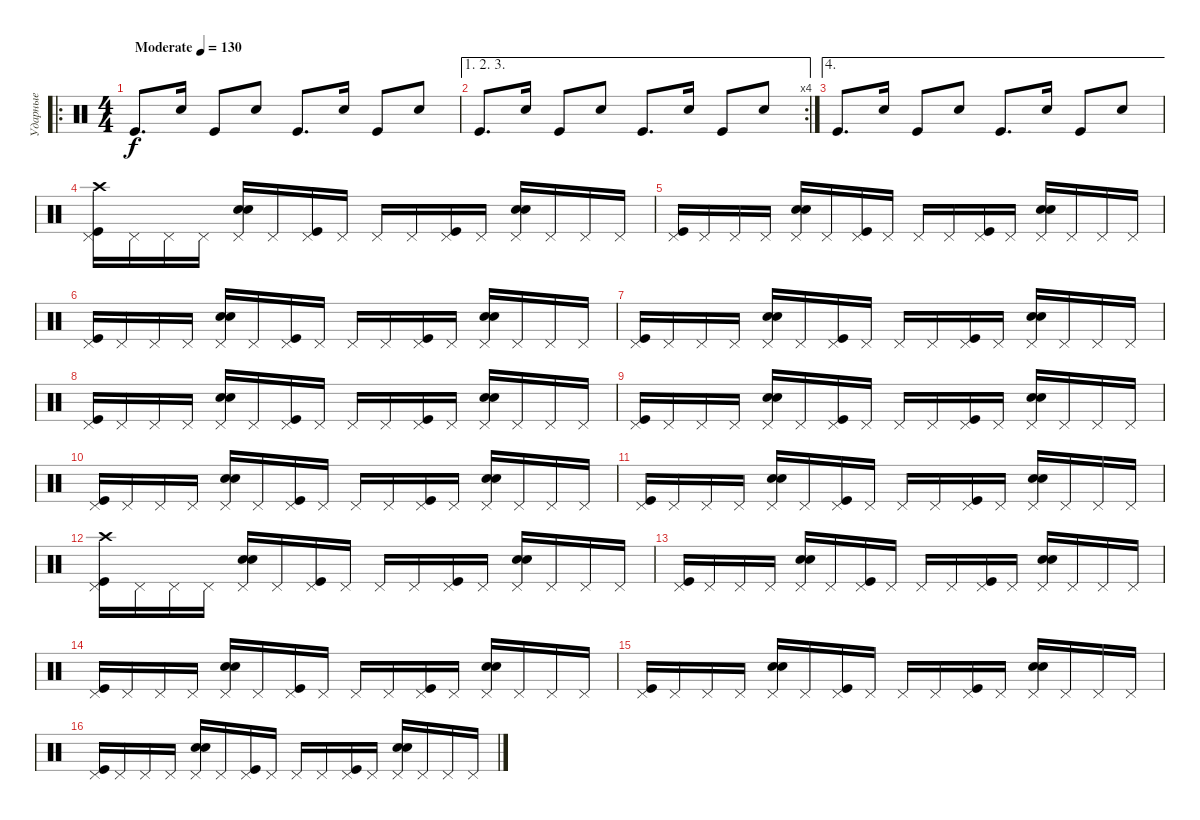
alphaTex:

\track ("Ударные" "Ударные") {instrument percussion}
\staff {score}
\articulation defaults
\ro
\ts (4 4)
\tempo (130 "Moderate")
\clef neutral
\ks c "Kick (hit)".8{d dy f} "Hand Clap (hit)".16 "Kick (hit)".8 "Hand Clap (hit)".8 "Kick (hit)".8{d} "Hand Clap (hit)".16 "Kick (hit)".8 "Hand Clap (hit)".8
|
\ae (1 2 3)
\rc 4 "Kick (hit)".8{d} "Hand Clap (hit)".16 "Kick (hit)".8 "Hand Clap (hit)".8 "Kick (hit)".8{d} "Hand Clap (hit)".16 "Kick (hit)".8 "Hand Clap (hit)".8
|
\ae 4 "Kick (hit)".8{d} "Hand Clap (hit)".16 "Kick (hit)".8 "Hand Clap (hit)".8 "Kick (hit)".8{d} "Hand Clap (hit)".16 "Kick (hit)".8 "Hand Clap (hit)".8
|
("Kick (hit)" "Pedal Hi-Hat (hit)" "Crash high (hit)").16 "Pedal Hi-Hat (hit)".16 "Pedal Hi-Hat (hit)".16 "Pedal Hi-Hat (hit)".16 ("Pedal Hi-Hat (hit)" "Electric Snare (hit)" "Hand Clap (hit)").16 "Pedal Hi-Hat (hit)".16 ("Kick (hit)" "Pedal Hi-Hat (hit)").16 "Pedal Hi-Hat (hit)".16 "Pedal Hi-Hat (hit)".16 "Pedal Hi-Hat (hit)".16 ("Kick (hit)" "Pedal Hi-Hat (hit)").16 "Pedal Hi-Hat (hit)".16 ("Pedal Hi-Hat (hit)" "Electric Snare (hit)" "Hand Clap (hit)").16 "Pedal Hi-Hat (hit)".16 "Pedal Hi-Hat (hit)".16 "Pedal Hi-Hat (hit)".16 |
("Kick (hit)" "Pedal Hi-Hat (hit)").16 "Pedal Hi-Hat (hit)".16 "Pedal Hi-Hat (hit)".16 "Pedal Hi-Hat (hit)".16 ("Pedal Hi-Hat (hit)" "Electric Snare (hit)" "Hand Clap (hit)").16 "Pedal Hi-Hat (hit)".16 ("Kick (hit)" "Pedal Hi-Hat (hit)").16 "Pedal Hi-Hat (hit)".16 "Pedal Hi-Hat (hit)".16 "Pedal Hi-Hat (hit)".16 ("Kick (hit)" "Pedal Hi-Hat (hit)").16 "Pedal Hi-Hat (hit)".16 ("Pedal Hi-Hat (hit)" "Electric Snare (hit)" "Hand Clap (hit)").16 "Pedal Hi-Hat (hit)".16 "Pedal Hi-Hat (hit)".16 "Pedal Hi-Hat (hit)".16 |
("Kick (hit)" "Pedal Hi-Hat (hit)").16 "Pedal Hi-Hat (hit)".16 "Pedal Hi-Hat (hit)".16 "Pedal Hi-Hat (hit)".16 ("Pedal Hi-Hat (hit)" "Electric Snare (hit)" "Hand Clap (hit)").16 "Pedal Hi-Hat (hit)".16 ("Kick (hit)" "Pedal Hi-Hat (hit)").16 "Pedal Hi-Hat (hit)".16 "Pedal Hi-Hat (hit)".16 "Pedal Hi-Hat (hit)".16 ("Kick (hit)" "Pedal Hi-Hat (hit)").16 "Pedal Hi-Hat (hit)".16 ("Pedal Hi-Hat (hit)" "Electric Snare (hit)" "Hand Clap (hit)").16 "Pedal Hi-Hat (hit)".16 "Pedal Hi-Hat (hit)".16 "Pedal Hi-Hat (hit)".16 |
("Kick (hit)" "Pedal Hi-Hat (hit)").16 "Pedal Hi-Hat (hit)".16 "Pedal Hi-Hat (hit)".16 "Pedal Hi-Hat (hit)".16 ("Pedal Hi-Hat (hit)" "Electric Snare (hit)" "Hand Clap (hit)").16 "Pedal Hi-Hat (hit)".16 ("Kick (hit)" "Pedal Hi-Hat (hit)").16 "Pedal Hi-Hat (hit)".16 "Pedal Hi-Hat (hit)".16 "Pedal Hi-Hat (hit)".16 ("Kick (hit)" "Pedal Hi-Hat (hit)").16 "Pedal Hi-Hat (hit)".16 ("Pedal Hi-Hat (hit)" "Electric Snare (hit)" "Hand Clap (hit)").16 "Pedal Hi-Hat (hit)".16 "Pedal Hi-Hat (hit)".16 "Pedal Hi-Hat (hit)".16 |
("Kick (hit)" "Pedal Hi-Hat (hit)").16 "Pedal Hi-Hat (hit)".16 "Pedal Hi-Hat (hit)".16 "Pedal Hi-Hat (hit)".16 ("Pedal Hi-Hat (hit)" "Electric Snare (hit)" "Hand Clap (hit)").16 "Pedal Hi-Hat (hit)".16 ("Kick (hit)" "Pedal Hi-Hat (hit)").16 "Pedal Hi-Hat (hit)".16 "Pedal Hi-Hat (hit)".16 "Pedal Hi-Hat (hit)".16 ("Kick (hit)" "Pedal Hi-Hat (hit)").16 "Pedal Hi-Hat (hit)".16 ("Pedal Hi-Hat (hit)" "Electric Snare (hit)" "Hand Clap (hit)").16 "Pedal Hi-Hat (hit)".16 "Pedal Hi-Hat (hit)".16 "Pedal Hi-Hat (hit)".16 |
("Kick (hit)" "Pedal Hi-Hat (hit)").16 "Pedal Hi-Hat (hit)".16 "Pedal Hi-Hat (hit)".16 "Pedal Hi-Hat (hit)".16 ("Pedal Hi-Hat (hit)" "Electric Snare (hit)" "Hand Clap (hit)").16 "Pedal Hi-Hat (hit)".16 ("Kick (hit)" "Pedal Hi-Hat (hit)").16 "Pedal Hi-Hat (hit)".16 "Pedal Hi-Hat (hit)".16 "Pedal Hi-Hat (hit)".16 ("Kick (hit)" "Pedal Hi-Hat (hit)").16 "Pedal Hi-Hat (hit)".16 ("Pedal Hi-Hat (hit)" "Electric Snare (hit)" "Hand Clap (hit)").16 "Pedal Hi-Hat (hit)".16 "Pedal Hi-Hat (hit)".16 "Pedal Hi-Hat (hit)".16 |
("Kick (hit)" "Pedal Hi-Hat (hit)").16 "Pedal Hi-Hat (hit)".16 "Pedal Hi-Hat (hit)".16 "Pedal Hi-Hat (hit)".16 ("Pedal Hi-Hat (hit)" "Electric Snare (hit)" "Hand Clap (hit)").16 "Pedal Hi-Hat (hit)".16 ("Kick (hit)" "Pedal Hi-Hat (hit)").16 "Pedal Hi-Hat (hit)".16 "Pedal Hi-Hat (hit)".16 "Pedal Hi-Hat (hit)".16 ("Kick (hit)" "Pedal Hi-Hat (hit)").16 "Pedal Hi-Hat (hit)".16 ("Pedal Hi-Hat (hit)" "Electric Snare (hit)" "Hand Clap (hit)").16 "Pedal Hi-Hat (hit)".16 "Pedal Hi-Hat (hit)".16 "Pedal Hi-Hat (hit)".16 |
("Kick (hit)" "Pedal Hi-Hat (hit)").16 "Pedal Hi-Hat (hit)".16 "Pedal Hi-Hat (hit)".16 "Pedal Hi-Hat (hit)".16 ("Pedal Hi-Hat (hit)" "Electric Snare (hit)" "Hand Clap (hit)").16 "Pedal Hi-Hat (hit)".16 ("Kick (hit)" "Pedal Hi-Hat (hit)").16 "Pedal Hi-Hat (hit)".16 "Pedal Hi-Hat (hit)".16 "Pedal Hi-Hat (hit)".16 ("Kick (hit)" "Pedal Hi-Hat (hit)").16 "Pedal Hi-Hat (hit)".16 ("Pedal Hi-Hat (hit)" "Electric Snare (hit)" "Hand Clap (hit)").16 "Pedal Hi-Hat (hit)".16 "Pedal Hi-Hat (hit)".16 "Pedal Hi-Hat (hit)".16 |
("Kick (hit)" "Pedal Hi-Hat (hit)" "Crash high (hit)").16 "Pedal Hi-Hat (hit)".16 "Pedal Hi-Hat (hit)".16 "Pedal Hi-Hat (hit)".16 ("Pedal Hi-Hat (hit)" "Electric Snare (hit)" "Hand Clap (hit)").16 "Pedal Hi-Hat (hit)".16 ("Kick (hit)" "Pedal Hi-Hat (hit)").16 "Pedal Hi-Hat (hit)".16 "Pedal Hi-Hat (hit)".16 "Pedal Hi-Hat (hit)".16 ("Kick (hit)" "Pedal Hi-Hat (hit)").16 "Pedal Hi-Hat (hit)".16 ("Pedal Hi-Hat (hit)" "Electric Snare (hit)" "Hand Clap (hit)").16 "Pedal Hi-Hat (hit)".16 "Pedal Hi-Hat (hit)".16 "Pedal Hi-Hat (hit)".16 |
("Kick (hit)" "Pedal Hi-Hat (hit)").16 "Pedal Hi-Hat (hit)".16 "Pedal Hi-Hat (hit)".16 "Pedal Hi-Hat (hit)".16 ("Pedal Hi-Hat (hit)" "Electric Snare (hit)" "Hand Clap (hit)").16 "Pedal Hi-Hat (hit)".16 ("Kick (hit)" "Pedal Hi-Hat (hit)").16 "Pedal Hi-Hat (hit)".16 "Pedal Hi-Hat (hit)".16 "Pedal Hi-Hat (hit)".16 ("Kick (hit)" "Pedal Hi-Hat (hit)").16 "Pedal Hi-Hat (hit)".16 ("Pedal Hi-Hat (hit)" "Electric Snare (hit)" "Hand Clap (hit)").16 "Pedal Hi-Hat (hit)".16 "Pedal Hi-Hat (hit)".16 "Pedal Hi-Hat (hit)".16 |
("Kick (hit)" "Pedal Hi-Hat (hit)").16 "Pedal Hi-Hat (hit)".16 "Pedal Hi-Hat (hit)".16 "Pedal Hi-Hat (hit)".16 ("Pedal Hi-Hat (hit)" "Electric Snare (hit)" "Hand Clap (hit)").16 "Pedal Hi-Hat (hit)".16 ("Kick (hit)" "Pedal Hi-Hat (hit)").16 "Pedal Hi-Hat (hit)".16 "Pedal Hi-Hat (hit)".16 "Pedal Hi-Hat (hit)".16 ("Kick (hit)" "Pedal Hi-Hat (hit)").16 "Pedal Hi-Hat (hit)".16 ("Pedal Hi-Hat (hit)" "Electric Snare (hit)" "Hand Clap (hit)").16 "Pedal Hi-Hat (hit)".16 "Pedal Hi-Hat (hit)".16 "Pedal Hi-Hat (hit)".16 |
("Kick (hit)" "Pedal Hi-Hat (hit)").16 "Pedal Hi-Hat (hit)".16 "Pedal Hi-Hat (hit)".16 "Pedal Hi-Hat (hit)".16 ("Pedal Hi-Hat (hit)" "Electric Snare (hit)" "Hand Clap (hit)").16 "Pedal Hi-Hat (hit)".16 ("Kick (hit)" "Pedal Hi-Hat (hit)").16 "Pedal Hi-Hat (hit)".16 "Pedal Hi-Hat (hit)".16 "Pedal Hi-Hat (hit)".16 ("Kick (hit)" "Pedal Hi-Hat (hit)").16 "Pedal Hi-Hat (hit)".16 ("Pedal Hi-Hat (hit)" "Electric Snare (hit)" "Hand Clap (hit)").16 "Pedal Hi-Hat (hit)".16 "Pedal Hi-Hat (hit)".16 "Pedal Hi-Hat (hit)".16 |
("Kick (hit)" "Pedal Hi-Hat (hit)").16 "Pedal Hi-Hat (hit)".16 "Pedal Hi-Hat (hit)".16 "Pedal Hi-Hat (hit)".16 ("Pedal Hi-Hat (hit)" "Electric Snare (hit)" "Hand Clap (hit)").16 "Pedal Hi-Hat (hit)".16 ("Kick (hit)" "Pedal Hi-Hat (hit)").16 "Pedal Hi-Hat (hit)".16 "Pedal Hi-Hat (hit)".16 "Pedal Hi-Hat (hit)".16 ("Kick (hit)" "Pedal Hi-Hat (hit)").16 "Pedal Hi-Hat (hit)".16 ("Pedal Hi-Hat (hit)" "Electric Snare (hit)" "Hand Clap (hit)").16 "Pedal Hi-Hat (hit)".16 "Pedal Hi-Hat (hit)".16 "Pedal Hi-Hat (hit)".16
